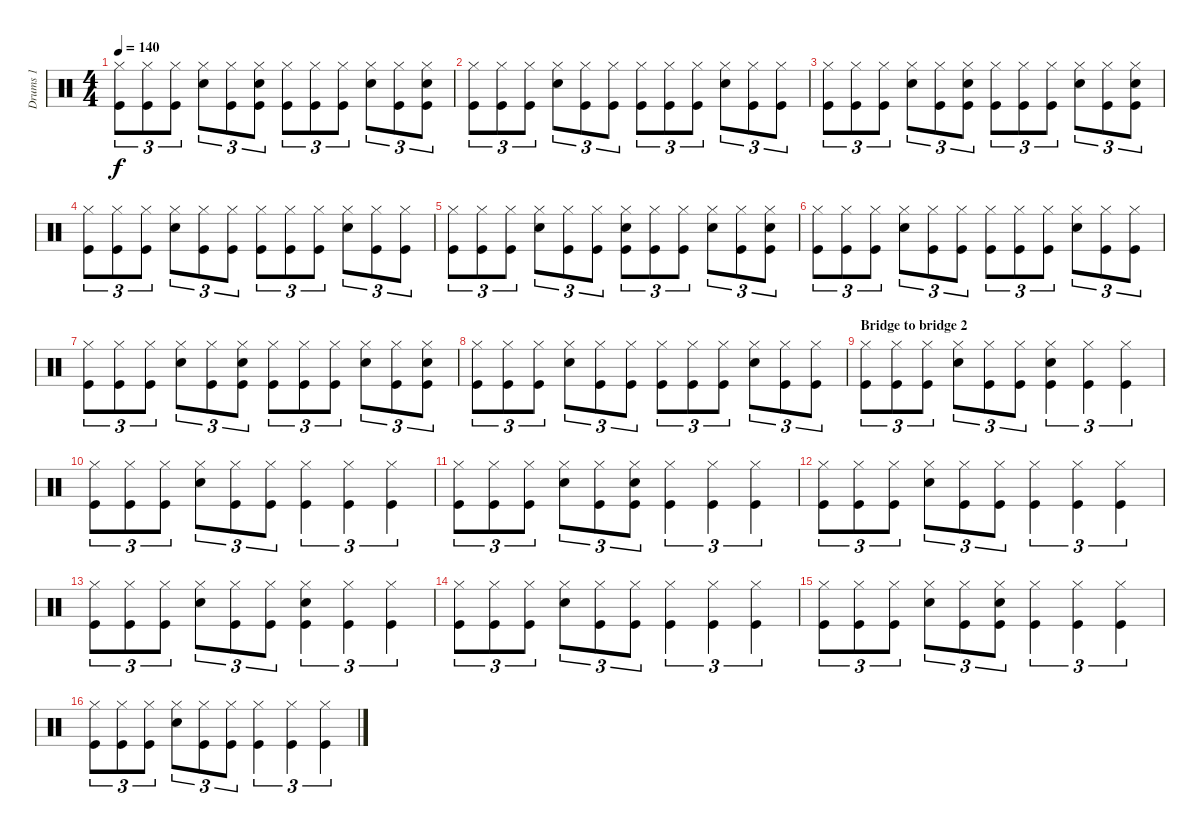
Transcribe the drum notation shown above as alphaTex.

\track ("Drums 1" "Drums 1") {instrument percussion}
\staff {score}
\articulation defaults
\ts (4 4)
\tempo 140
\clef neutral
\ks c
("Hi-Hat (closed)" "Kick (hit)").8{tu (3 2) dy f} ("Hi-Hat (closed)" "Kick (hit)").8{tu (3 2)} ("Hi-Hat (closed)" "Kick (hit)").8{tu (3 2)} ("Hi-Hat (closed)" "Snare (hit) 2").8{tu (3 2)} ("Hi-Hat (closed)" "Kick (hit)").8{tu (3 2)} ("Snare (hit) 2" "Hi-Hat (closed)" "Kick (hit)").8{tu (3 2)} ("Hi-Hat (closed)" "Kick (hit)").8{tu (3 2)} ("Hi-Hat (closed)" "Kick (hit)").8{tu (3 2)} ("Hi-Hat (closed)" "Kick (hit)").8{tu (3 2)} ("Hi-Hat (closed)" "Snare (hit) 2").8{tu (3 2)} ("Hi-Hat (closed)" "Kick (hit)").8{tu (3 2)} ("Snare (hit) 2" "Hi-Hat (closed)" "Kick (hit)").8{tu (3 2)} |
("Hi-Hat (closed)" "Kick (hit)").8{tu (3 2)} ("Hi-Hat (closed)" "Kick (hit)").8{tu (3 2)} ("Hi-Hat (closed)" "Kick (hit)").8{tu (3 2)} ("Hi-Hat (closed)" "Snare (hit) 2").8{tu (3 2)} ("Hi-Hat (closed)" "Kick (hit)").8{tu (3 2)} ("Hi-Hat (closed)" "Kick (hit)").8{tu (3 2)} ("Hi-Hat (closed)" "Kick (hit)").8{tu (3 2)} ("Hi-Hat (closed)" "Kick (hit)").8{tu (3 2)} ("Hi-Hat (closed)" "Kick (hit)").8{tu (3 2)} ("Hi-Hat (closed)" "Snare (hit) 2").8{tu (3 2)} ("Hi-Hat (closed)" "Kick (hit)").8{tu (3 2)} ("Hi-Hat (closed)" "Kick (hit)").8{tu (3 2)} |
("Hi-Hat (closed)" "Kick (hit)").8{tu (3 2)} ("Hi-Hat (closed)" "Kick (hit)").8{tu (3 2)} ("Hi-Hat (closed)" "Kick (hit)").8{tu (3 2)} ("Hi-Hat (closed)" "Snare (hit) 2").8{tu (3 2)} ("Hi-Hat (closed)" "Kick (hit)").8{tu (3 2)} ("Snare (hit) 2" "Hi-Hat (closed)" "Kick (hit)").8{tu (3 2)} ("Hi-Hat (closed)" "Kick (hit)").8{tu (3 2)} ("Hi-Hat (closed)" "Kick (hit)").8{tu (3 2)} ("Hi-Hat (closed)" "Kick (hit)").8{tu (3 2)} ("Hi-Hat (closed)" "Snare (hit) 2").8{tu (3 2)} ("Hi-Hat (closed)" "Kick (hit)").8{tu (3 2)} ("Snare (hit) 2" "Hi-Hat (closed)" "Kick (hit)").8{tu (3 2)} |
("Hi-Hat (closed)" "Kick (hit)").8{tu (3 2)} ("Hi-Hat (closed)" "Kick (hit)").8{tu (3 2)} ("Hi-Hat (closed)" "Kick (hit)").8{tu (3 2)} ("Hi-Hat (closed)" "Snare (hit) 2").8{tu (3 2)} ("Hi-Hat (closed)" "Kick (hit)").8{tu (3 2)} ("Hi-Hat (closed)" "Kick (hit)").8{tu (3 2)} ("Hi-Hat (closed)" "Kick (hit)").8{tu (3 2)} ("Hi-Hat (closed)" "Kick (hit)").8{tu (3 2)} ("Hi-Hat (closed)" "Kick (hit)").8{tu (3 2)} ("Hi-Hat (closed)" "Snare (hit) 2").8{tu (3 2)} ("Hi-Hat (closed)" "Kick (hit)").8{tu (3 2)} ("Hi-Hat (closed)" "Kick (hit)").8{tu (3 2)} |
("Hi-Hat (closed)" "Kick (hit)").8{tu (3 2)} ("Hi-Hat (closed)" "Kick (hit)").8{tu (3 2)} ("Hi-Hat (closed)" "Kick (hit)").8{tu (3 2)} ("Hi-Hat (closed)" "Snare (hit) 2").8{tu (3 2)} ("Hi-Hat (closed)" "Kick (hit)").8{tu (3 2)} ("Hi-Hat (closed)" "Kick (hit)").8{tu (3 2)} ("Snare (hit) 2" "Hi-Hat (closed)" "Kick (hit)").8{tu (3 2)} ("Hi-Hat (closed)" "Kick (hit)").8{tu (3 2)} ("Hi-Hat (closed)" "Kick (hit)").8{tu (3 2)} ("Hi-Hat (closed)" "Snare (hit) 2").8{tu (3 2)} ("Hi-Hat (closed)" "Kick (hit)").8{tu (3 2)} ("Snare (hit) 2" "Hi-Hat (closed)" "Kick (hit)").8{tu (3 2)} |
("Hi-Hat (closed)" "Kick (hit)").8{tu (3 2)} ("Hi-Hat (closed)" "Kick (hit)").8{tu (3 2)} ("Hi-Hat (closed)" "Kick (hit)").8{tu (3 2)} ("Hi-Hat (closed)" "Snare (hit) 2").8{tu (3 2)} ("Hi-Hat (closed)" "Kick (hit)").8{tu (3 2)} ("Hi-Hat (closed)" "Kick (hit)").8{tu (3 2)} ("Hi-Hat (closed)" "Kick (hit)").8{tu (3 2)} ("Hi-Hat (closed)" "Kick (hit)").8{tu (3 2)} ("Hi-Hat (closed)" "Kick (hit)").8{tu (3 2)} ("Hi-Hat (closed)" "Snare (hit) 2").8{tu (3 2)} ("Hi-Hat (closed)" "Kick (hit)").8{tu (3 2)} ("Hi-Hat (closed)" "Kick (hit)").8{tu (3 2)} |
("Hi-Hat (closed)" "Kick (hit)").8{tu (3 2)} ("Hi-Hat (closed)" "Kick (hit)").8{tu (3 2)} ("Hi-Hat (closed)" "Kick (hit)").8{tu (3 2)} ("Hi-Hat (closed)" "Snare (hit) 2").8{tu (3 2)} ("Hi-Hat (closed)" "Kick (hit)").8{tu (3 2)} ("Snare (hit) 2" "Hi-Hat (closed)" "Kick (hit)").8{tu (3 2)} ("Hi-Hat (closed)" "Kick (hit)").8{tu (3 2)} ("Hi-Hat (closed)" "Kick (hit)").8{tu (3 2)} ("Hi-Hat (closed)" "Kick (hit)").8{tu (3 2)} ("Hi-Hat (closed)" "Snare (hit) 2").8{tu (3 2)} ("Hi-Hat (closed)" "Kick (hit)").8{tu (3 2)} ("Snare (hit) 2" "Hi-Hat (closed)" "Kick (hit)").8{tu (3 2)} |
("Hi-Hat (closed)" "Kick (hit)").8{tu (3 2)} ("Hi-Hat (closed)" "Kick (hit)").8{tu (3 2)} ("Hi-Hat (closed)" "Kick (hit)").8{tu (3 2)} ("Hi-Hat (closed)" "Snare (hit) 2").8{tu (3 2)} ("Hi-Hat (closed)" "Kick (hit)").8{tu (3 2)} ("Hi-Hat (closed)" "Kick (hit)").8{tu (3 2)} ("Hi-Hat (closed)" "Kick (hit)").8{tu (3 2)} ("Hi-Hat (closed)" "Kick (hit)").8{tu (3 2)} ("Hi-Hat (closed)" "Kick (hit)").8{tu (3 2)} ("Hi-Hat (closed)" "Snare (hit) 2").8{tu (3 2)} ("Hi-Hat (closed)" "Kick (hit)").8{tu (3 2)} ("Hi-Hat (closed)" "Kick (hit)").8{tu (3 2)} |
\section ("" "Bridge to bridge 2")
("Hi-Hat (closed)" "Kick (hit)").8{tu (3 2)} ("Hi-Hat (closed)" "Kick (hit)").8{tu (3 2)} ("Hi-Hat (closed)" "Kick (hit)").8{tu (3 2)} ("Hi-Hat (closed)" "Snare (hit) 2").8{tu (3 2)} ("Hi-Hat (closed)" "Kick (hit)").8{tu (3 2)} ("Hi-Hat (closed)" "Kick (hit)").8{tu (3 2)} ("Snare (hit) 2" "Hi-Hat (closed)" "Kick (hit)").4{tu (3 2)} ("Hi-Hat (closed)" "Kick (hit)").4{tu (3 2)} ("Hi-Hat (closed)" "Kick (hit)").4{tu (3 2)} |
("Hi-Hat (closed)" "Kick (hit)").8{tu (3 2)} ("Hi-Hat (closed)" "Kick (hit)").8{tu (3 2)} ("Hi-Hat (closed)" "Kick (hit)").8{tu (3 2)} ("Hi-Hat (closed)" "Snare (hit) 2").8{tu (3 2)} ("Hi-Hat (closed)" "Kick (hit)").8{tu (3 2)} ("Hi-Hat (closed)" "Kick (hit)").8{tu (3 2)} ("Hi-Hat (closed)" "Kick (hit)").4{tu (3 2)} ("Hi-Hat (closed)" "Kick (hit)").4{tu (3 2)} ("Hi-Hat (closed)" "Kick (hit)").4{tu (3 2)} |
("Hi-Hat (closed)" "Kick (hit)").8{tu (3 2)} ("Hi-Hat (closed)" "Kick (hit)").8{tu (3 2)} ("Hi-Hat (closed)" "Kick (hit)").8{tu (3 2)} ("Hi-Hat (closed)" "Snare (hit) 2").8{tu (3 2)} ("Hi-Hat (closed)" "Kick (hit)").8{tu (3 2)} ("Snare (hit) 2" "Hi-Hat (closed)" "Kick (hit)").8{tu (3 2)} ("Hi-Hat (closed)" "Kick (hit)").4{tu (3 2)} ("Hi-Hat (closed)" "Kick (hit)").4{tu (3 2)} ("Hi-Hat (closed)" "Kick (hit)").4{tu (3 2)} |
("Hi-Hat (closed)" "Kick (hit)").8{tu (3 2)} ("Hi-Hat (closed)" "Kick (hit)").8{tu (3 2)} ("Hi-Hat (closed)" "Kick (hit)").8{tu (3 2)} ("Hi-Hat (closed)" "Snare (hit) 2").8{tu (3 2)} ("Hi-Hat (closed)" "Kick (hit)").8{tu (3 2)} ("Hi-Hat (closed)" "Kick (hit)").8{tu (3 2)} ("Hi-Hat (closed)" "Kick (hit)").4{tu (3 2)} ("Hi-Hat (closed)" "Kick (hit)").4{tu (3 2)} ("Hi-Hat (closed)" "Kick (hit)").4{tu (3 2)} |
("Hi-Hat (closed)" "Kick (hit)").8{tu (3 2)} ("Hi-Hat (closed)" "Kick (hit)").8{tu (3 2)} ("Hi-Hat (closed)" "Kick (hit)").8{tu (3 2)} ("Hi-Hat (closed)" "Snare (hit) 2").8{tu (3 2)} ("Hi-Hat (closed)" "Kick (hit)").8{tu (3 2)} ("Hi-Hat (closed)" "Kick (hit)").8{tu (3 2)} ("Snare (hit) 2" "Hi-Hat (closed)" "Kick (hit)").4{tu (3 2)} ("Hi-Hat (closed)" "Kick (hit)").4{tu (3 2)} ("Hi-Hat (closed)" "Kick (hit)").4{tu (3 2)} |
("Hi-Hat (closed)" "Kick (hit)").8{tu (3 2)} ("Hi-Hat (closed)" "Kick (hit)").8{tu (3 2)} ("Hi-Hat (closed)" "Kick (hit)").8{tu (3 2)} ("Hi-Hat (closed)" "Snare (hit) 2").8{tu (3 2)} ("Hi-Hat (closed)" "Kick (hit)").8{tu (3 2)} ("Hi-Hat (closed)" "Kick (hit)").8{tu (3 2)} ("Hi-Hat (closed)" "Kick (hit)").4{tu (3 2)} ("Hi-Hat (closed)" "Kick (hit)").4{tu (3 2)} ("Hi-Hat (closed)" "Kick (hit)").4{tu (3 2)} |
("Hi-Hat (closed)" "Kick (hit)").8{tu (3 2)} ("Hi-Hat (closed)" "Kick (hit)").8{tu (3 2)} ("Hi-Hat (closed)" "Kick (hit)").8{tu (3 2)} ("Hi-Hat (closed)" "Snare (hit) 2").8{tu (3 2)} ("Hi-Hat (closed)" "Kick (hit)").8{tu (3 2)} ("Snare (hit) 2" "Hi-Hat (closed)" "Kick (hit)").8{tu (3 2)} ("Hi-Hat (closed)" "Kick (hit)").4{tu (3 2)} ("Hi-Hat (closed)" "Kick (hit)").4{tu (3 2)} ("Hi-Hat (closed)" "Kick (hit)").4{tu (3 2)} |
("Hi-Hat (closed)" "Kick (hit)").8{tu (3 2)} ("Hi-Hat (closed)" "Kick (hit)").8{tu (3 2)} ("Hi-Hat (closed)" "Kick (hit)").8{tu (3 2)} ("Hi-Hat (closed)" "Snare (hit) 2").8{tu (3 2)} ("Hi-Hat (closed)" "Kick (hit)").8{tu (3 2)} ("Hi-Hat (closed)" "Kick (hit)").8{tu (3 2)} ("Hi-Hat (closed)" "Kick (hit)").4{tu (3 2)} ("Hi-Hat (closed)" "Kick (hit)").4{tu (3 2)} ("Hi-Hat (closed)" "Kick (hit)").4{tu (3 2)}
